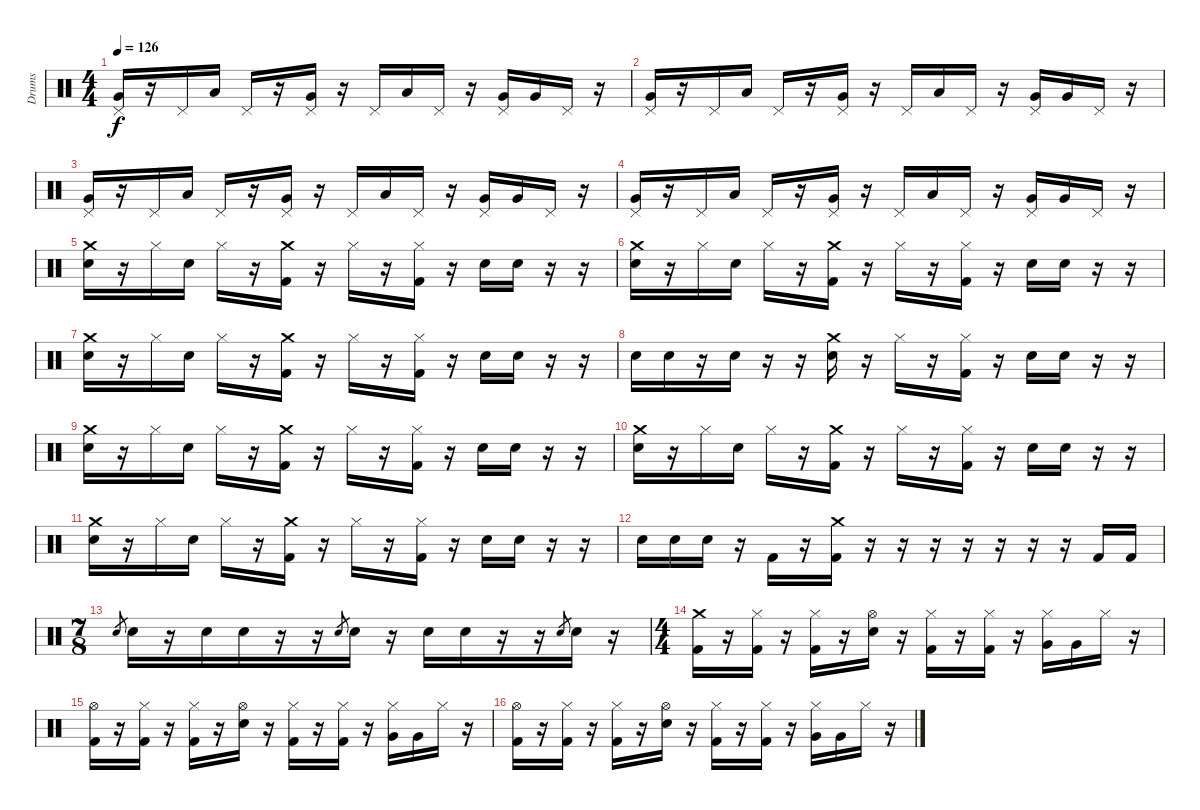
\track ("Drums" "Drums") {instrument percussion}
\staff {score}
\articulation defaults
\ts (4 4)
\tempo 126
\clef neutral
\ks c
("Pedal Hi-Hat (hit)" "Very Low Tom (hit)").16{dy f} r.16 "Pedal Hi-Hat (hit)".16 "Low Floor Tom (hit)".16 "Pedal Hi-Hat (hit)".16 r.16 ("Pedal Hi-Hat (hit)" "Very Low Tom (hit)").16 r.16 "Pedal Hi-Hat (hit)".16 "Low Floor Tom (hit)".16 "Pedal Hi-Hat (hit)".16 r.16 ("Pedal Hi-Hat (hit)" "Very Low Tom (hit)").16 "Very Low Tom (hit)".16 "Pedal Hi-Hat (hit)".16 r.16 |
("Pedal Hi-Hat (hit)" "Very Low Tom (hit)").16 r.16 "Pedal Hi-Hat (hit)".16 "Low Floor Tom (hit)".16 "Pedal Hi-Hat (hit)".16 r.16 ("Pedal Hi-Hat (hit)" "Very Low Tom (hit)").16 r.16 "Pedal Hi-Hat (hit)".16 "Low Floor Tom (hit)".16 "Pedal Hi-Hat (hit)".16 r.16 ("Pedal Hi-Hat (hit)" "Very Low Tom (hit)").16 "Very Low Tom (hit)".16 "Pedal Hi-Hat (hit)".16 r.16 |
("Pedal Hi-Hat (hit)" "Very Low Tom (hit)").16 r.16 "Pedal Hi-Hat (hit)".16 "Low Floor Tom (hit)".16 "Pedal Hi-Hat (hit)".16 r.16 ("Pedal Hi-Hat (hit)" "Very Low Tom (hit)").16 r.16 "Pedal Hi-Hat (hit)".16 "Low Floor Tom (hit)".16 "Pedal Hi-Hat (hit)".16 r.16 ("Pedal Hi-Hat (hit)" "Very Low Tom (hit)").16 "Very Low Tom (hit)".16 "Pedal Hi-Hat (hit)".16 r.16 |
("Pedal Hi-Hat (hit)" "Very Low Tom (hit)").16 r.16 "Pedal Hi-Hat (hit)".16 "Low Floor Tom (hit)".16 "Pedal Hi-Hat (hit)".16 r.16 ("Pedal Hi-Hat (hit)" "Very Low Tom (hit)").16 r.16 "Pedal Hi-Hat (hit)".16 "Low Floor Tom (hit)".16 "Pedal Hi-Hat (hit)".16 r.16 ("Pedal Hi-Hat (hit)" "Very Low Tom (hit)").16 "Very Low Tom (hit)".16 "Pedal Hi-Hat (hit)".16 r.16 |
("Crash medium (hit)" "Snare (hit) 2").16 r.16 "Hi-Hat (closed)".16 "Snare (hit) 2".16 "Hi-Hat (closed)".16 r.16 ("Crash medium (hit)" "Kick (hit) 2").16 r.16 "Hi-Hat (closed)".16 r.16 ("Hi-Hat (closed)" "Kick (hit) 2").16 r.16 "Snare (hit) 2".16 "Snare (hit) 2".16 r.16 r.16 |
("Crash medium (hit)" "Snare (hit) 2").16 r.16 "Hi-Hat (closed)".16 "Snare (hit) 2".16 "Hi-Hat (closed)".16 r.16 ("Crash medium (hit)" "Kick (hit) 2").16 r.16 "Hi-Hat (closed)".16 r.16 ("Hi-Hat (closed)" "Kick (hit) 2").16 r.16 "Snare (hit) 2".16 "Snare (hit) 2".16 r.16 r.16 |
("Crash medium (hit)" "Snare (hit) 2").16 r.16 "Hi-Hat (closed)".16 "Snare (hit) 2".16 "Hi-Hat (closed)".16 r.16 ("Crash medium (hit)" "Kick (hit) 2").16 r.16 "Hi-Hat (closed)".16 r.16 ("Hi-Hat (closed)" "Kick (hit) 2").16 r.16 "Snare (hit) 2".16 "Snare (hit) 2".16 r.16 r.16 |
"Snare (hit) 2".16 "Snare (hit) 2".16 r.16 "Snare (hit) 2".16 r.16 r.16 ("Crash medium (hit)" "Snare (hit) 2").16 r.16 "Hi-Hat (closed)".16 r.16 ("Hi-Hat (closed)" "Kick (hit) 2").16 r.16 "Snare (hit) 2".16 "Snare (hit) 2".16 r.16 r.16 |
("Crash medium (hit)" "Snare (hit) 2").16 r.16 "Hi-Hat (closed)".16 "Snare (hit) 2".16 "Hi-Hat (closed)".16 r.16 ("Crash medium (hit)" "Kick (hit) 2").16 r.16 "Hi-Hat (closed)".16 r.16 ("Hi-Hat (closed)" "Kick (hit) 2").16 r.16 "Snare (hit) 2".16 "Snare (hit) 2".16 r.16 r.16 |
("Crash medium (hit)" "Snare (hit) 2").16 r.16 "Hi-Hat (closed)".16 "Snare (hit) 2".16 "Hi-Hat (closed)".16 r.16 ("Crash medium (hit)" "Kick (hit) 2").16 r.16 "Hi-Hat (closed)".16 r.16 ("Hi-Hat (closed)" "Kick (hit) 2").16 r.16 "Snare (hit) 2".16 "Snare (hit) 2".16 r.16 r.16 |
("Crash medium (hit)" "Snare (hit) 2").16 r.16 "Hi-Hat (closed)".16 "Snare (hit) 2".16 "Hi-Hat (closed)".16 r.16 ("Crash medium (hit)" "Kick (hit) 2").16 r.16 "Hi-Hat (closed)".16 r.16 ("Hi-Hat (closed)" "Kick (hit) 2").16 r.16 "Snare (hit) 2".16 "Snare (hit) 2".16 r.16 r.16 |
"Snare (hit) 2".16 "Snare (hit) 2".16 "Snare (hit) 2".16 r.16 "Kick (hit) 2".16 r.16 ("Crash medium (hit)" "Kick (hit) 2").16 r.16 r.16 r.16 r.16 r.16 r.16 r.16 "Kick (hit) 2".16 "Kick (hit) 2".16 |
\ts (7 8)
"Snare (hit) 2".8{gr} "Snare (hit) 2".16 r.16 "Snare (hit) 2".16 "Snare (hit) 2".16 r.16 r.16 "Snare (hit) 2".8{gr} "Snare (hit) 2".16 r.16 "Snare (hit) 2".16 "Snare (hit) 2".16 r.16 r.16 "Snare (hit) 2".8{gr} "Snare (hit) 2".16 r.16 |
\ts (4 4)
("Crash medium (hit)" "Kick (hit) 2").16 r.16 ("Hi-Hat (closed)" "Kick (hit) 2").16 r.16 ("Hi-Hat (closed)" "Kick (hit) 2").16 r.16 ("Hi-Hat (open)" "Snare (hit) 2").16 r.16 ("Hi-Hat (closed)" "Kick (hit) 2").16 r.16 ("Hi-Hat (closed)" "Kick (hit) 2").16 r.16 ("Hi-Hat (closed)" "Very Low Tom (hit)").16 "Very Low Tom (hit)".16 "Hi-Hat (closed)".16 r.16 |
("Hi-Hat (open)" "Kick (hit) 2").16 r.16 ("Hi-Hat (closed)" "Kick (hit) 2").16 r.16 ("Hi-Hat (closed)" "Kick (hit) 2").16 r.16 ("Hi-Hat (open)" "Snare (hit) 2").16 r.16 ("Hi-Hat (closed)" "Kick (hit) 2").16 r.16 ("Hi-Hat (closed)" "Kick (hit) 2").16 r.16 ("Hi-Hat (closed)" "Very Low Tom (hit)").16 "Very Low Tom (hit)".16 "Hi-Hat (closed)".16 r.16 |
("Hi-Hat (open)" "Kick (hit) 2").16 r.16 ("Hi-Hat (closed)" "Kick (hit) 2").16 r.16 ("Hi-Hat (closed)" "Kick (hit) 2").16 r.16 ("Hi-Hat (open)" "Snare (hit) 2").16 r.16 ("Hi-Hat (closed)" "Kick (hit) 2").16 r.16 ("Hi-Hat (closed)" "Kick (hit) 2").16 r.16 ("Hi-Hat (closed)" "Very Low Tom (hit)").16 "Very Low Tom (hit)".16 "Hi-Hat (closed)".16 r.16
